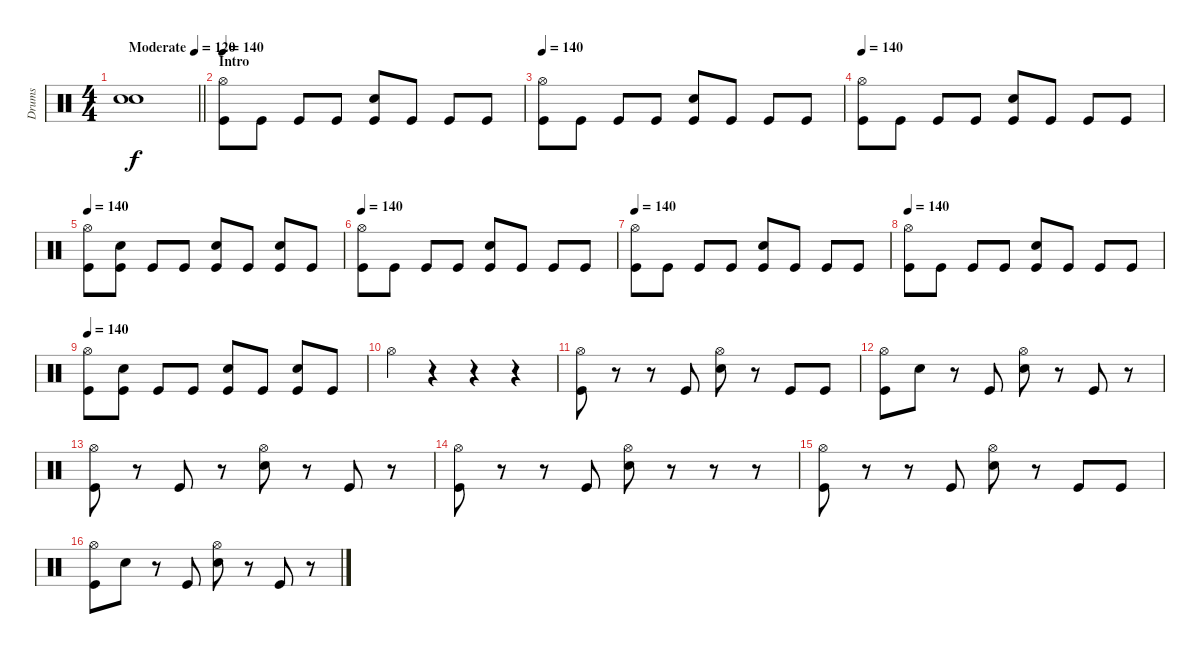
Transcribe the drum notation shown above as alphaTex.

\track ("Drums" "Drums") {instrument percussion}
\staff {score}
\articulation defaults
\ts (4 4)
\tempo (120 "Moderate")
\tempo 300
\tempo (120 "Moderate")
\clef neutral
\barLineRight lightlight
\ks c
("Electric Snare (hit)" "Electric Snare (hit)").1{dy f} |
\section ("" "Intro")
\tempo 140
("Hi-Hat (open)" "Kick (hit)").8 "Kick (hit)".8 "Kick (hit)".8 "Kick (hit)".8 ("Electric Snare (hit)" "Kick (hit)").8 "Kick (hit)".8 "Kick (hit)".8 "Kick (hit)".8 |
\tempo 140
("Hi-Hat (open)" "Kick (hit)").8 "Kick (hit)".8 "Kick (hit)".8 "Kick (hit)".8 ("Electric Snare (hit)" "Kick (hit)").8 "Kick (hit)".8 "Kick (hit)".8 "Kick (hit)".8 |
\tempo 140
("Hi-Hat (open)" "Kick (hit)").8 "Kick (hit)".8 "Kick (hit)".8 "Kick (hit)".8 ("Electric Snare (hit)" "Kick (hit)").8 "Kick (hit)".8 "Kick (hit)".8 "Kick (hit)".8 |
\tempo 140
("Hi-Hat (open)" "Kick (hit)").8 ("Electric Snare (hit)" "Kick (hit)").8 "Kick (hit)".8 "Kick (hit)".8 ("Electric Snare (hit)" "Kick (hit)").8 "Kick (hit)".8 ("Electric Snare (hit)" "Kick (hit)").8 "Kick (hit)".8 |
\tempo 140
("Hi-Hat (open)" "Kick (hit)").8 "Kick (hit)".8 "Kick (hit)".8 "Kick (hit)".8 ("Electric Snare (hit)" "Kick (hit)").8 "Kick (hit)".8 "Kick (hit)".8 "Kick (hit)".8 |
\tempo 140
("Hi-Hat (open)" "Kick (hit)").8 "Kick (hit)".8 "Kick (hit)".8 "Kick (hit)".8 ("Electric Snare (hit)" "Kick (hit)").8 "Kick (hit)".8 "Kick (hit)".8 "Kick (hit)".8 |
\tempo 140
("Hi-Hat (open)" "Kick (hit)").8 "Kick (hit)".8 "Kick (hit)".8 "Kick (hit)".8 ("Electric Snare (hit)" "Kick (hit)").8 "Kick (hit)".8 "Kick (hit)".8 "Kick (hit)".8 |
\tempo 140
("Hi-Hat (open)" "Kick (hit)").8 ("Electric Snare (hit)" "Kick (hit)").8 "Kick (hit)".8 "Kick (hit)".8 ("Electric Snare (hit)" "Kick (hit)").8 "Kick (hit)".8 ("Electric Snare (hit)" "Kick (hit)").8 "Kick (hit)".8 |
"Hi-Hat (open)".4 r.4 r.4 r.4 |
("Hi-Hat (open)" "Kick (hit)").8 r.8 r.8 "Kick (hit)".8 ("Hi-Hat (open)" "Electric Snare (hit)").8 r.8 "Kick (hit)".8 "Kick (hit)".8 |
("Hi-Hat (open)" "Kick (hit)").8 "Electric Snare (hit)".8 r.8 "Kick (hit)".8 ("Hi-Hat (open)" "Electric Snare (hit)").8 r.8 "Kick (hit)".8 r.8 |
("Hi-Hat (open)" "Kick (hit)").8 r.8 "Kick (hit)".8 r.8 ("Hi-Hat (open)" "Electric Snare (hit)").8 r.8 "Kick (hit)".8 r.8 |
("Hi-Hat (open)" "Kick (hit)").8 r.8 r.8 "Kick (hit)".8 ("Hi-Hat (open)" "Electric Snare (hit)").8 r.8 r.8 r.8 |
("Hi-Hat (open)" "Kick (hit)").8 r.8 r.8 "Kick (hit)".8 ("Hi-Hat (open)" "Electric Snare (hit)").8 r.8 "Kick (hit)".8 "Kick (hit)".8 |
("Hi-Hat (open)" "Kick (hit)").8 "Electric Snare (hit)".8 r.8 "Kick (hit)".8 ("Hi-Hat (open)" "Electric Snare (hit)").8 r.8 "Kick (hit)".8 r.8
